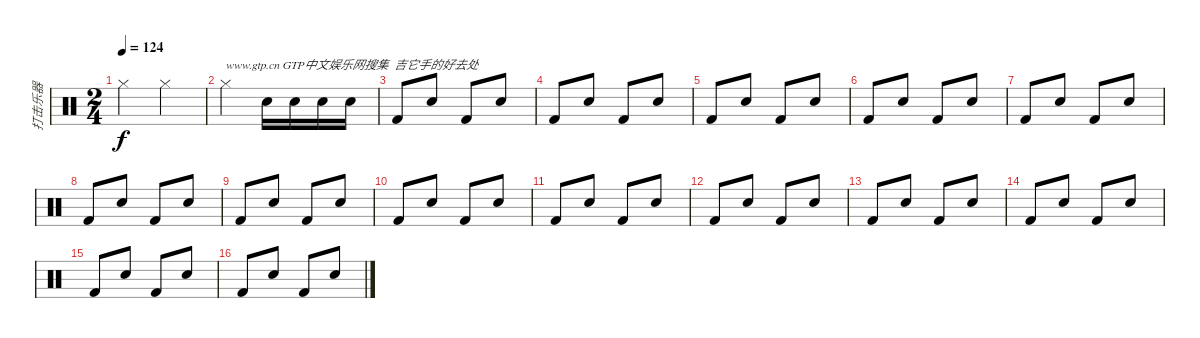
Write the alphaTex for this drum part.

\track ("打击乐器" "打击乐器") {instrument percussion}
\staff {score}
\articulation defaults
\ts (2 4)
\tempo 124
\clef neutral
\ks c "Hi-Hat (closed)".4{dy f} "Hi-Hat (closed)".4
|
"Hi-Hat (closed)".4{txt "www.gtp.cn GTP中文娱乐网搜集  吉它手的好去处"} "Snare (hit) 2".16 "Snare (hit) 2".16 "Snare (hit) 2".16 "Snare (hit) 2".16 |
"Kick (hit) 2".8 "Snare (hit) 2".8 "Kick (hit) 2".8 "Snare (hit) 2".8 |
"Kick (hit) 2".8 "Snare (hit) 2".8 "Kick (hit) 2".8 "Snare (hit) 2".8 |
"Kick (hit) 2".8 "Snare (hit) 2".8 "Kick (hit) 2".8 "Snare (hit) 2".8 |
"Kick (hit) 2".8 "Snare (hit) 2".8 "Kick (hit) 2".8 "Snare (hit) 2".8 |
"Kick (hit) 2".8 "Snare (hit) 2".8 "Kick (hit) 2".8 "Snare (hit) 2".8 |
"Kick (hit) 2".8 "Snare (hit) 2".8 "Kick (hit) 2".8 "Snare (hit) 2".8 |
"Kick (hit) 2".8 "Snare (hit) 2".8 "Kick (hit) 2".8 "Snare (hit) 2".8 |
"Kick (hit) 2".8 "Snare (hit) 2".8 "Kick (hit) 2".8 "Snare (hit) 2".8 |
"Kick (hit) 2".8 "Snare (hit) 2".8 "Kick (hit) 2".8 "Snare (hit) 2".8 |
"Kick (hit) 2".8 "Snare (hit) 2".8 "Kick (hit) 2".8 "Snare (hit) 2".8 |
"Kick (hit) 2".8 "Snare (hit) 2".8 "Kick (hit) 2".8 "Snare (hit) 2".8 |
"Kick (hit) 2".8 "Snare (hit) 2".8 "Kick (hit) 2".8 "Snare (hit) 2".8 |
"Kick (hit) 2".8 "Snare (hit) 2".8 "Kick (hit) 2".8 "Snare (hit) 2".8 |
"Kick (hit) 2".8 "Snare (hit) 2".8 "Kick (hit) 2".8 "Snare (hit) 2".8
